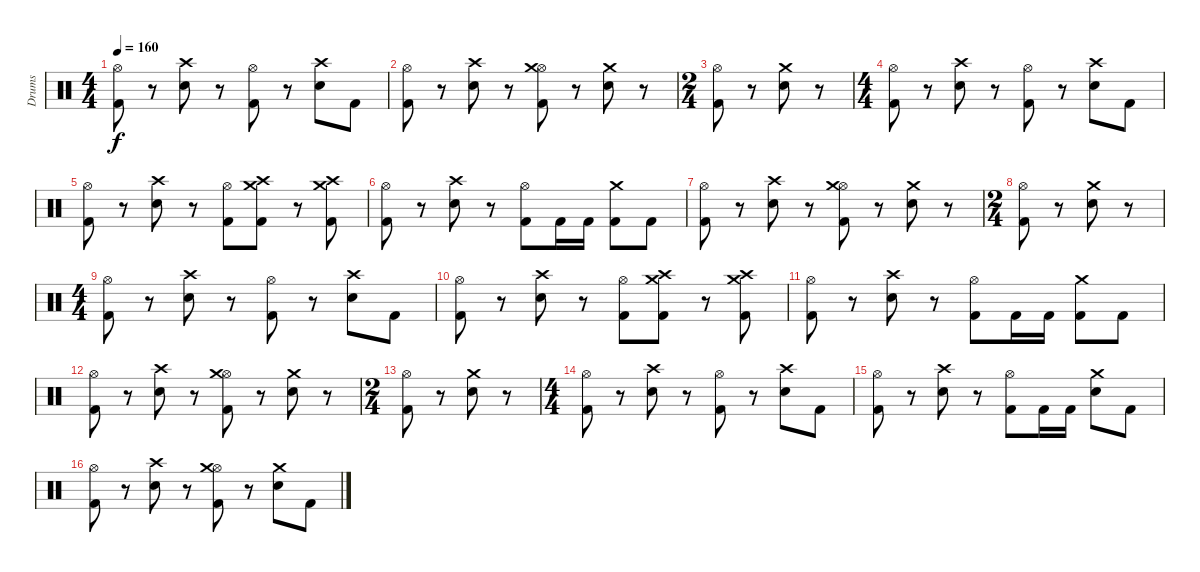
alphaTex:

\track ("Drums" "Drums") {instrument percussion}
\staff {score}
\articulation defaults
\ts (4 4)
\tempo 160
\clef neutral
\ks c
("Kick (hit) 2" "Hi-Hat (open)").8{dy f} r.8 ("Electric Snare (hit)" "Crash high (hit)").8 r.8 ("Kick (hit) 2" "Hi-Hat (open)").8 r.8 ("Electric Snare (hit)" "Crash high (hit)").8 "Kick (hit) 2".8 |
("Kick (hit) 2" "Hi-Hat (open)").8 r.8 ("Electric Snare (hit)" "Crash high (hit)").8 r.8 ("Kick (hit) 2" "Hi-Hat (open)" "Crash medium (hit)").8 r.8 ("Electric Snare (hit)" "Crash medium (hit)").8 r.8 |
\ts (2 4)
("Kick (hit) 2" "Hi-Hat (open)").8 r.8 ("Electric Snare (hit)" "Crash medium (hit)").8 r.8 |
\ts (4 4)
("Kick (hit) 2" "Hi-Hat (open)").8 r.8 ("Electric Snare (hit)" "Crash high (hit)").8 r.8 ("Kick (hit) 2" "Hi-Hat (open)").8 r.8 ("Electric Snare (hit)" "Crash high (hit)").8 "Kick (hit) 2".8 |
("Kick (hit) 2" "Hi-Hat (open)").8 r.8 ("Electric Snare (hit)" "Crash high (hit)").8 r.8 ("Kick (hit) 2" "Hi-Hat (open)").8 ("Kick (hit) 2" "Crash high (hit)" "Crash medium (hit)").8 r.8 ("Kick (hit) 2" "Crash high (hit)" "Crash medium (hit)").8 |
("Kick (hit) 2" "Hi-Hat (open)").8 r.8 ("Electric Snare (hit)" "Crash high (hit)").8 r.8 ("Kick (hit) 2" "Hi-Hat (open)").8 "Kick (hit) 2".16 "Kick (hit) 2".16 ("Kick (hit) 2" "Crash medium (hit)").8 "Kick (hit) 2".8 |
("Kick (hit) 2" "Hi-Hat (open)").8 r.8 ("Electric Snare (hit)" "Crash high (hit)").8 r.8 ("Kick (hit) 2" "Hi-Hat (open)" "Crash medium (hit)").8 r.8 ("Electric Snare (hit)" "Crash medium (hit)").8 r.8 |
\ts (2 4)
("Kick (hit) 2" "Hi-Hat (open)").8 r.8 ("Electric Snare (hit)" "Crash medium (hit)").8 r.8 |
\ts (4 4)
("Kick (hit) 2" "Hi-Hat (open)").8 r.8 ("Electric Snare (hit)" "Crash high (hit)").8 r.8 ("Kick (hit) 2" "Hi-Hat (open)").8 r.8 ("Electric Snare (hit)" "Crash high (hit)").8 "Kick (hit) 2".8 |
("Kick (hit) 2" "Hi-Hat (open)").8 r.8 ("Electric Snare (hit)" "Crash high (hit)").8 r.8 ("Kick (hit) 2" "Hi-Hat (open)").8 ("Kick (hit) 2" "Crash high (hit)" "Crash medium (hit)").8 r.8 ("Kick (hit) 2" "Crash high (hit)" "Crash medium (hit)").8 |
("Kick (hit) 2" "Hi-Hat (open)").8 r.8 ("Electric Snare (hit)" "Crash high (hit)").8 r.8 ("Kick (hit) 2" "Hi-Hat (open)").8 "Kick (hit) 2".16 "Kick (hit) 2".16 ("Kick (hit) 2" "Crash medium (hit)").8 "Kick (hit) 2".8 |
("Kick (hit) 2" "Hi-Hat (open)").8 r.8 ("Electric Snare (hit)" "Crash high (hit)").8 r.8 ("Kick (hit) 2" "Hi-Hat (open)" "Crash medium (hit)").8 r.8 ("Electric Snare (hit)" "Crash medium (hit)").8 r.8 |
\ts (2 4)
("Kick (hit) 2" "Hi-Hat (open)").8 r.8 ("Electric Snare (hit)" "Crash medium (hit)").8 r.8 |
\ts (4 4)
("Kick (hit) 2" "Hi-Hat (open)").8 r.8 ("Electric Snare (hit)" "Crash high (hit)").8 r.8 ("Kick (hit) 2" "Hi-Hat (open)").8 r.8 ("Electric Snare (hit)" "Crash high (hit)").8 "Kick (hit) 2".8 |
("Kick (hit) 2" "Hi-Hat (open)").8 r.8 ("Electric Snare (hit)" "Crash high (hit)").8 r.8 ("Kick (hit) 2" "Hi-Hat (open)").8 "Kick (hit) 2".16 "Kick (hit) 2".16 ("Electric Snare (hit)" "Crash medium (hit)").8 "Kick (hit) 2".8 |
("Kick (hit) 2" "Hi-Hat (open)").8 r.8 ("Electric Snare (hit)" "Crash high (hit)").8 r.8 ("Kick (hit) 2" "Hi-Hat (open)" "Crash medium (hit)").8 r.8 ("Electric Snare (hit)" "Crash medium (hit)").8 "Kick (hit) 2".8
